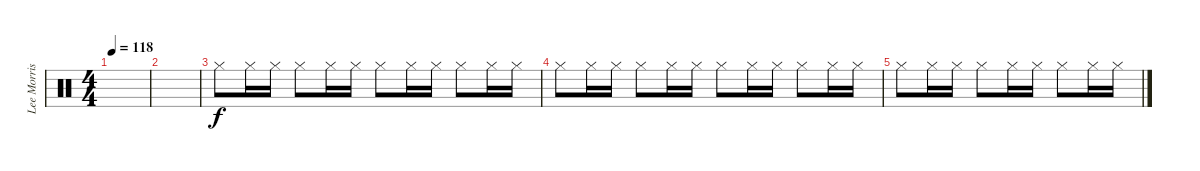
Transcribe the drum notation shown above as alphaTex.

\track ("Lee Morris" "Lee Morris") {instrument percussion}
\staff {score}
\articulation defaults
\ts (4 4)
\tempo 118
\clef neutral
\ks c
|
|
"Hi-Hat (closed)".8 "Hi-Hat (closed)".16 "Hi-Hat (closed)".16 "Hi-Hat (closed)".8 "Hi-Hat (closed)".16 "Hi-Hat (closed)".16 "Hi-Hat (closed)".8 "Hi-Hat (closed)".16 "Hi-Hat (closed)".16 "Hi-Hat (closed)".8 "Hi-Hat (closed)".16 "Hi-Hat (closed)".16 |
"Hi-Hat (closed)".8 "Hi-Hat (closed)".16 "Hi-Hat (closed)".16 "Hi-Hat (closed)".8 "Hi-Hat (closed)".16 "Hi-Hat (closed)".16 "Hi-Hat (closed)".8 "Hi-Hat (closed)".16 "Hi-Hat (closed)".16 "Hi-Hat (closed)".8 "Hi-Hat (closed)".16 "Hi-Hat (closed)".16 |
"Hi-Hat (closed)".8 "Hi-Hat (closed)".16 "Hi-Hat (closed)".16 "Hi-Hat (closed)".8 "Hi-Hat (closed)".16 "Hi-Hat (closed)".16 "Hi-Hat (closed)".8 "Hi-Hat (closed)".16 "Hi-Hat (closed)".16
